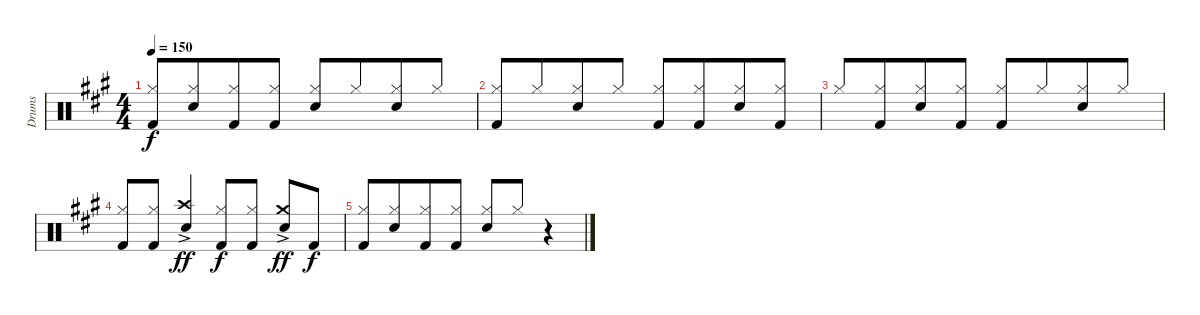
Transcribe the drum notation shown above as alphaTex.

\track ("Drums" "Drums") {instrument percussion}
\staff {score}
\articulation defaults
\ts (4 4)
\tempo 150
\clef neutral
\ks a
("Hi-Hat (closed)" "Kick (hit) 2").8{dy f beam Up} ("Hi-Hat (closed)" "Snare (hit) 2").8{beam Up beam merge} ("Hi-Hat (closed)" "Kick (hit) 2").8{beam Up} ("Hi-Hat (closed)" "Kick (hit) 2").8{beam Up} ("Hi-Hat (closed)" "Snare (hit) 2").8{beam Up} "Hi-Hat (closed)".8{beam Up beam merge} ("Hi-Hat (closed)" "Snare (hit) 2").8{beam Up} "Hi-Hat (closed)".8{beam Up} |
("Hi-Hat (closed)" "Kick (hit) 2").8{beam Up} "Hi-Hat (closed)".8{beam Up beam merge} ("Hi-Hat (closed)" "Snare (hit) 2").8{beam Up} "Hi-Hat (closed)".8{beam Up} ("Hi-Hat (closed)" "Kick (hit) 2").8{beam Up} ("Hi-Hat (closed)" "Kick (hit) 2").8{beam Up beam merge} ("Hi-Hat (closed)" "Snare (hit) 2").8{beam Up} ("Hi-Hat (closed)" "Kick (hit) 2").8{beam Up} |
"Hi-Hat (closed)".8{beam Up} ("Hi-Hat (closed)" "Kick (hit) 2").8{beam Up beam merge} ("Hi-Hat (closed)" "Snare (hit) 2").8{beam Up} ("Hi-Hat (closed)" "Kick (hit) 2").8{beam Up} ("Hi-Hat (closed)" "Kick (hit) 2").8{beam Up} "Hi-Hat (closed)".8{beam Up beam merge} ("Hi-Hat (closed)" "Snare (hit) 2").8{beam Up} "Hi-Hat (closed)".8{beam Up} |
("Hi-Hat (closed)" "Kick (hit) 2").8{beam Up} ("Hi-Hat (closed)" "Kick (hit) 2").8{beam Up} ("Crash high (hit)"{ac} "Snare (hit) 2").4{dy ff beam Up} ("Hi-Hat (closed)" "Kick (hit) 2").8{dy f beam Up} ("Hi-Hat (closed)" "Kick (hit) 2").8{beam Up} ("Crash medium (hit)"{ac} "Snare (hit) 2").8{dy ff beam Up} "Kick (hit) 2".8{dy f beam Up} |
("Hi-Hat (closed)" "Kick (hit) 2").8{beam Up} ("Hi-Hat (closed)" "Snare (hit) 2").8{beam Up beam merge} ("Hi-Hat (closed)" "Kick (hit) 2").8{beam Up} ("Hi-Hat (closed)" "Kick (hit) 2").8{beam Up} ("Hi-Hat (closed)" "Snare (hit) 2").8{beam Up} "Hi-Hat (closed)".8{beam Up} r.4{beam Up}
